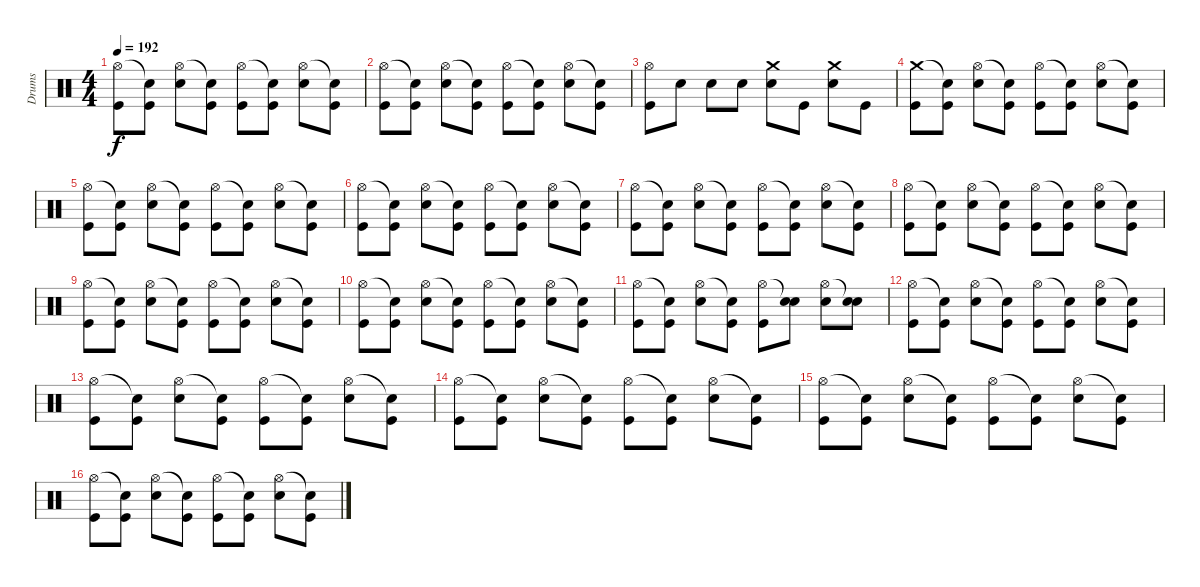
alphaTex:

\track ("Drums" "Drums") {instrument percussion}
\staff {score}
\articulation defaults
\ts (4 4)
\tempo 192
\clef neutral
\ks c
("Kick (hit)" "Hi-Hat (open)").8{dy f} ("Kick (hit)" "Snare (hit)"{t}).8 ("Snare (hit) 2" "Hi-Hat (open)").8 ("Kick (hit)" "Snare (hit)"{t}).8 ("Kick (hit)" "Hi-Hat (open)").8 ("Kick (hit)" "Snare (hit)"{t}).8 ("Snare (hit) 2" "Hi-Hat (open)").8 ("Kick (hit)" "Snare (hit)"{t}).8 |
("Kick (hit)" "Hi-Hat (open)").8 ("Kick (hit)" "Snare (hit)"{t}).8 ("Snare (hit) 2" "Hi-Hat (open)").8 ("Kick (hit)" "Snare (hit)"{t}).8 ("Kick (hit)" "Hi-Hat (open)").8 ("Kick (hit)" "Snare (hit)"{t}).8 ("Snare (hit) 2" "Hi-Hat (open)").8 ("Kick (hit)" "Snare (hit)"{t}).8 |
("Kick (hit)" "Hi-Hat (open)").8 "Snare (hit) 2".8 "Snare (hit) 2".8 "Snare (hit) 2".8 ("Snare (hit) 2" "Crash medium (hit)").8 "Kick (hit)".8 ("Snare (hit) 2" "Crash medium (hit)").8 "Kick (hit)".8 |
("Kick (hit)" "Crash medium (hit)").8 ("Kick (hit)" "Snare (hit)"{t}).8 ("Snare (hit) 2" "Hi-Hat (open)").8 ("Kick (hit)" "Snare (hit)"{t}).8 ("Kick (hit)" "Hi-Hat (open)").8 ("Kick (hit)" "Snare (hit)"{t}).8 ("Snare (hit) 2" "Hi-Hat (open)").8 ("Kick (hit)" "Snare (hit)"{t}).8 |
("Kick (hit)" "Hi-Hat (open)").8 ("Kick (hit)" "Snare (hit)"{t}).8 ("Snare (hit) 2" "Hi-Hat (open)").8 ("Kick (hit)" "Snare (hit)"{t}).8 ("Kick (hit)" "Hi-Hat (open)").8 ("Kick (hit)" "Snare (hit)"{t}).8 ("Snare (hit) 2" "Hi-Hat (open)").8 ("Kick (hit)" "Snare (hit)"{t}).8 |
("Kick (hit)" "Hi-Hat (open)").8 ("Kick (hit)" "Snare (hit)"{t}).8 ("Snare (hit) 2" "Hi-Hat (open)").8 ("Kick (hit)" "Snare (hit)"{t}).8 ("Kick (hit)" "Hi-Hat (open)").8 ("Kick (hit)" "Snare (hit)"{t}).8 ("Snare (hit) 2" "Hi-Hat (open)").8 ("Kick (hit)" "Snare (hit)"{t}).8 |
("Kick (hit)" "Hi-Hat (open)").8 ("Kick (hit)" "Snare (hit)"{t}).8 ("Snare (hit) 2" "Hi-Hat (open)").8 ("Kick (hit)" "Snare (hit)"{t}).8 ("Kick (hit)" "Hi-Hat (open)").8 ("Kick (hit)" "Snare (hit)"{t}).8 ("Snare (hit) 2" "Hi-Hat (open)").8 ("Kick (hit)" "Snare (hit)"{t}).8 |
("Kick (hit)" "Hi-Hat (open)").8 ("Kick (hit)" "Snare (hit)"{t}).8 ("Snare (hit) 2" "Hi-Hat (open)").8 ("Kick (hit)" "Snare (hit)"{t}).8 ("Kick (hit)" "Hi-Hat (open)").8 ("Kick (hit)" "Snare (hit)"{t}).8 ("Snare (hit) 2" "Hi-Hat (open)").8 ("Kick (hit)" "Snare (hit)"{t}).8 |
("Kick (hit)" "Hi-Hat (open)").8 ("Kick (hit)" "Snare (hit)"{t}).8 ("Snare (hit) 2" "Hi-Hat (open)").8 ("Kick (hit)" "Snare (hit)"{t}).8 ("Kick (hit)" "Hi-Hat (open)").8 ("Kick (hit)" "Snare (hit)"{t}).8 ("Snare (hit) 2" "Hi-Hat (open)").8 ("Kick (hit)" "Snare (hit)"{t}).8 |
("Kick (hit)" "Hi-Hat (open)").8 ("Kick (hit)" "Snare (hit)"{t}).8 ("Snare (hit) 2" "Hi-Hat (open)").8 ("Kick (hit)" "Snare (hit)"{t}).8 ("Kick (hit)" "Hi-Hat (open)").8 ("Kick (hit)" "Snare (hit)"{t}).8 ("Snare (hit) 2" "Hi-Hat (open)").8 ("Kick (hit)" "Snare (hit)"{t}).8 |
("Kick (hit)" "Hi-Hat (open)").8 ("Kick (hit)" "Snare (hit)"{t}).8 ("Snare (hit) 2" "Hi-Hat (open)").8 ("Kick (hit)" "Snare (hit)"{t}).8 ("Kick (hit)" "Hi-Hat (open)").8 ("Snare (hit) 2" "Snare (hit)"{t}).8 ("Snare (hit) 2" "Hi-Hat (open)").8 ("Snare (hit) 2" "Snare (hit)"{t}).8 |
("Kick (hit)" "Hi-Hat (open)").8 ("Kick (hit)" "Snare (hit)"{t}).8 ("Snare (hit) 2" "Hi-Hat (open)").8 ("Kick (hit)" "Snare (hit)"{t}).8 ("Kick (hit)" "Hi-Hat (open)").8 ("Kick (hit)" "Snare (hit)"{t}).8 ("Snare (hit) 2" "Hi-Hat (open)").8 ("Kick (hit)" "Snare (hit)"{t}).8 |
("Kick (hit)" "Hi-Hat (open)").8 ("Kick (hit)" "Snare (hit)"{t}).8 ("Snare (hit) 2" "Hi-Hat (open)").8 ("Kick (hit)" "Snare (hit)"{t}).8 ("Kick (hit)" "Hi-Hat (open)").8 ("Kick (hit)" "Snare (hit)"{t}).8 ("Snare (hit) 2" "Hi-Hat (open)").8 ("Kick (hit)" "Snare (hit)"{t}).8 |
("Kick (hit)" "Hi-Hat (open)").8 ("Kick (hit)" "Snare (hit)"{t}).8 ("Snare (hit) 2" "Hi-Hat (open)").8 ("Kick (hit)" "Snare (hit)"{t}).8 ("Kick (hit)" "Hi-Hat (open)").8 ("Kick (hit)" "Snare (hit)"{t}).8 ("Snare (hit) 2" "Hi-Hat (open)").8 ("Kick (hit)" "Snare (hit)"{t}).8 |
("Kick (hit)" "Hi-Hat (open)").8 ("Kick (hit)" "Snare (hit)"{t}).8 ("Snare (hit) 2" "Hi-Hat (open)").8 ("Kick (hit)" "Snare (hit)"{t}).8 ("Kick (hit)" "Hi-Hat (open)").8 ("Kick (hit)" "Snare (hit)"{t}).8 ("Snare (hit) 2" "Hi-Hat (open)").8 ("Kick (hit)" "Snare (hit)"{t}).8 |
("Kick (hit)" "Hi-Hat (open)").8 ("Kick (hit)" "Snare (hit)"{t}).8 ("Snare (hit) 2" "Hi-Hat (open)").8 ("Kick (hit)" "Snare (hit)"{t}).8 ("Kick (hit)" "Hi-Hat (open)").8 ("Kick (hit)" "Snare (hit)"{t}).8 ("Snare (hit) 2" "Hi-Hat (open)").8 ("Kick (hit)" "Snare (hit)"{t}).8
